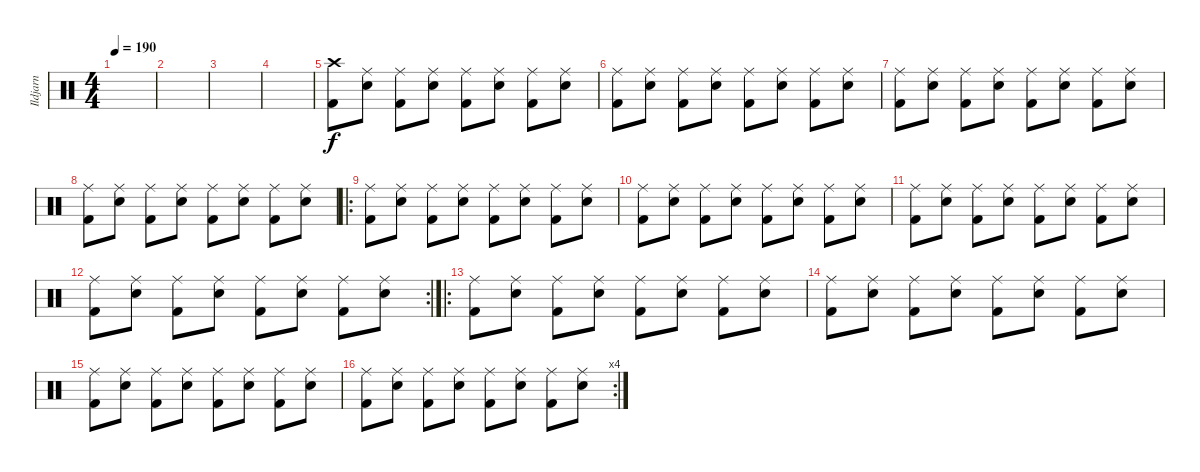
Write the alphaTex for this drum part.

\track ("Ildjarn" "Ildjarn") {instrument percussion}
\staff {score}
\articulation defaults
\ts (4 4)
\tempo 190
\clef neutral
\ks c
|
|
|
|
("Crash high (hit)" "Kick (hit) 2").8 ("Ride (middle)" "Snare (hit) 2").8 ("Ride (middle)" "Kick (hit) 2").8 ("Ride (middle)" "Snare (hit) 2").8 ("Ride (middle)" "Kick (hit) 2").8 ("Ride (middle)" "Snare (hit) 2").8 ("Ride (middle)" "Kick (hit) 2").8 ("Ride (middle)" "Snare (hit) 2").8 |
("Ride (middle)" "Kick (hit) 2").8 ("Ride (middle)" "Snare (hit) 2").8 ("Ride (middle)" "Kick (hit) 2").8 ("Ride (middle)" "Snare (hit) 2").8 ("Ride (middle)" "Kick (hit) 2").8 ("Ride (middle)" "Snare (hit) 2").8 ("Ride (middle)" "Kick (hit) 2").8 ("Ride (middle)" "Snare (hit) 2").8 |
("Ride (middle)" "Kick (hit) 2").8 ("Ride (middle)" "Snare (hit) 2").8 ("Ride (middle)" "Kick (hit) 2").8 ("Ride (middle)" "Snare (hit) 2").8 ("Ride (middle)" "Kick (hit) 2").8 ("Ride (middle)" "Snare (hit) 2").8 ("Ride (middle)" "Kick (hit) 2").8 ("Ride (middle)" "Snare (hit) 2").8 |
("Ride (middle)" "Kick (hit) 2").8 ("Ride (middle)" "Snare (hit) 2").8 ("Ride (middle)" "Kick (hit) 2").8 ("Ride (middle)" "Snare (hit) 2").8 ("Ride (middle)" "Kick (hit) 2").8 ("Ride (middle)" "Snare (hit) 2").8 ("Ride (middle)" "Kick (hit) 2").8 ("Ride (middle)" "Snare (hit) 2").8 |
\ro
("Ride (middle)" "Kick (hit) 2").8 ("Ride (middle)" "Snare (hit) 2").8 ("Ride (middle)" "Kick (hit) 2").8 ("Ride (middle)" "Snare (hit) 2").8 ("Ride (middle)" "Kick (hit) 2").8 ("Ride (middle)" "Snare (hit) 2").8 ("Ride (middle)" "Kick (hit) 2").8 ("Ride (middle)" "Snare (hit) 2").8 |
("Ride (middle)" "Kick (hit) 2").8 ("Ride (middle)" "Snare (hit) 2").8 ("Ride (middle)" "Kick (hit) 2").8 ("Ride (middle)" "Snare (hit) 2").8 ("Ride (middle)" "Kick (hit) 2").8 ("Ride (middle)" "Snare (hit) 2").8 ("Ride (middle)" "Kick (hit) 2").8 ("Ride (middle)" "Snare (hit) 2").8 |
("Ride (middle)" "Kick (hit) 2").8 ("Ride (middle)" "Snare (hit) 2").8 ("Ride (middle)" "Kick (hit) 2").8 ("Ride (middle)" "Snare (hit) 2").8 ("Ride (middle)" "Kick (hit) 2").8 ("Ride (middle)" "Snare (hit) 2").8 ("Ride (middle)" "Kick (hit) 2").8 ("Ride (middle)" "Snare (hit) 2").8 |
\rc 2
("Ride (middle)" "Kick (hit) 2").8 ("Ride (middle)" "Snare (hit) 2").8 ("Ride (middle)" "Kick (hit) 2").8 ("Ride (middle)" "Snare (hit) 2").8 ("Ride (middle)" "Kick (hit) 2").8 ("Ride (middle)" "Snare (hit) 2").8 ("Ride (middle)" "Kick (hit) 2").8 ("Ride (middle)" "Snare (hit) 2").8 |
\ro
("Ride (middle)" "Kick (hit) 2").8 ("Ride (middle)" "Snare (hit) 2").8 ("Ride (middle)" "Kick (hit) 2").8 ("Ride (middle)" "Snare (hit) 2").8 ("Ride (middle)" "Kick (hit) 2").8 ("Ride (middle)" "Snare (hit) 2").8 ("Ride (middle)" "Kick (hit) 2").8 ("Ride (middle)" "Snare (hit) 2").8 |
("Ride (middle)" "Kick (hit) 2").8 ("Ride (middle)" "Snare (hit) 2").8 ("Ride (middle)" "Kick (hit) 2").8 ("Ride (middle)" "Snare (hit) 2").8 ("Ride (middle)" "Kick (hit) 2").8 ("Ride (middle)" "Snare (hit) 2").8 ("Ride (middle)" "Kick (hit) 2").8 ("Ride (middle)" "Snare (hit) 2").8 |
("Ride (middle)" "Kick (hit) 2").8 ("Ride (middle)" "Snare (hit) 2").8 ("Ride (middle)" "Kick (hit) 2").8 ("Ride (middle)" "Snare (hit) 2").8 ("Ride (middle)" "Kick (hit) 2").8 ("Ride (middle)" "Snare (hit) 2").8 ("Ride (middle)" "Kick (hit) 2").8 ("Ride (middle)" "Snare (hit) 2").8 |
\rc 4
("Ride (middle)" "Kick (hit) 2").8 ("Ride (middle)" "Snare (hit) 2").8 ("Ride (middle)" "Kick (hit) 2").8 ("Ride (middle)" "Snare (hit) 2").8 ("Ride (middle)" "Kick (hit) 2").8 ("Ride (middle)" "Snare (hit) 2").8 ("Ride (middle)" "Kick (hit) 2").8 ("Ride (middle)" "Snare (hit) 2").8
